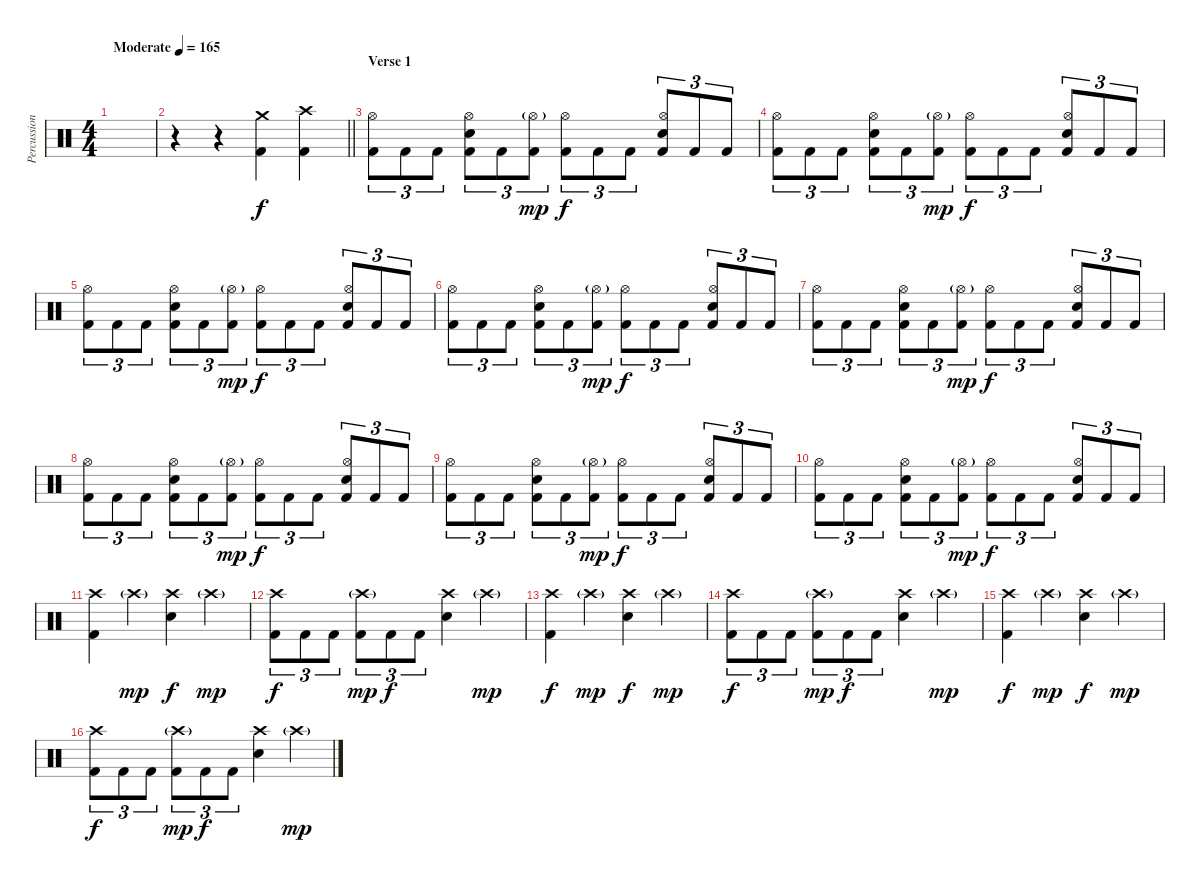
\track ("Percussion" "Percussion") {instrument percussion}
\staff {score}
\articulation defaults
\ts (4 4)
\tempo (165 "Moderate")
\clef neutral
\ks c
|
\barLineRight lightlight
r.4 r.4 ("Crash medium (hit)" "Kick (hit) 2").4 ("Crash high (hit)" "Kick (hit) 2").4 |
\section ("" "Verse 1")
("Hi-Hat (open)" "Kick (hit) 2").8{tu (3 2)} "Kick (hit) 2".8{tu (3 2)} "Kick (hit) 2".8{tu (3 2)} ("Hi-Hat (open)" "Snare (hit) 2" "Kick (hit) 2").8{tu (3 2)} "Kick (hit) 2".8{tu (3 2)} ("Hi-Hat (open)"{g} "Kick (hit) 2").8{tu (3 2) dy mp} ("Hi-Hat (open)" "Kick (hit) 2").8{tu (3 2) dy f} "Kick (hit) 2".8{tu (3 2)} "Kick (hit) 2".8{tu (3 2)} ("Hi-Hat (open)" "Snare (hit) 2" "Kick (hit) 2").8{tu (3 2)} "Kick (hit) 2".8{tu (3 2)} "Kick (hit) 2".8{tu (3 2)} |
("Hi-Hat (open)" "Kick (hit) 2").8{tu (3 2)} "Kick (hit) 2".8{tu (3 2)} "Kick (hit) 2".8{tu (3 2)} ("Hi-Hat (open)" "Snare (hit) 2" "Kick (hit) 2").8{tu (3 2)} "Kick (hit) 2".8{tu (3 2)} ("Hi-Hat (open)"{g} "Kick (hit) 2").8{tu (3 2) dy mp} ("Hi-Hat (open)" "Kick (hit) 2").8{tu (3 2) dy f} "Kick (hit) 2".8{tu (3 2)} "Kick (hit) 2".8{tu (3 2)} ("Hi-Hat (open)" "Snare (hit) 2" "Kick (hit) 2").8{tu (3 2)} "Kick (hit) 2".8{tu (3 2)} "Kick (hit) 2".8{tu (3 2)} |
("Hi-Hat (open)" "Kick (hit) 2").8{tu (3 2)} "Kick (hit) 2".8{tu (3 2)} "Kick (hit) 2".8{tu (3 2)} ("Hi-Hat (open)" "Snare (hit) 2" "Kick (hit) 2").8{tu (3 2)} "Kick (hit) 2".8{tu (3 2)} ("Hi-Hat (open)"{g} "Kick (hit) 2").8{tu (3 2) dy mp} ("Hi-Hat (open)" "Kick (hit) 2").8{tu (3 2) dy f} "Kick (hit) 2".8{tu (3 2)} "Kick (hit) 2".8{tu (3 2)} ("Hi-Hat (open)" "Snare (hit) 2" "Kick (hit) 2").8{tu (3 2)} "Kick (hit) 2".8{tu (3 2)} "Kick (hit) 2".8{tu (3 2)} |
("Hi-Hat (open)" "Kick (hit) 2").8{tu (3 2)} "Kick (hit) 2".8{tu (3 2)} "Kick (hit) 2".8{tu (3 2)} ("Hi-Hat (open)" "Snare (hit) 2" "Kick (hit) 2").8{tu (3 2)} "Kick (hit) 2".8{tu (3 2)} ("Hi-Hat (open)"{g} "Kick (hit) 2").8{tu (3 2) dy mp} ("Hi-Hat (open)" "Kick (hit) 2").8{tu (3 2) dy f} "Kick (hit) 2".8{tu (3 2)} "Kick (hit) 2".8{tu (3 2)} ("Hi-Hat (open)" "Snare (hit) 2" "Kick (hit) 2").8{tu (3 2)} "Kick (hit) 2".8{tu (3 2)} "Kick (hit) 2".8{tu (3 2)} |
("Hi-Hat (open)" "Kick (hit) 2").8{tu (3 2)} "Kick (hit) 2".8{tu (3 2)} "Kick (hit) 2".8{tu (3 2)} ("Hi-Hat (open)" "Snare (hit) 2" "Kick (hit) 2").8{tu (3 2)} "Kick (hit) 2".8{tu (3 2)} ("Hi-Hat (open)"{g} "Kick (hit) 2").8{tu (3 2) dy mp} ("Hi-Hat (open)" "Kick (hit) 2").8{tu (3 2) dy f} "Kick (hit) 2".8{tu (3 2)} "Kick (hit) 2".8{tu (3 2)} ("Hi-Hat (open)" "Snare (hit) 2" "Kick (hit) 2").8{tu (3 2)} "Kick (hit) 2".8{tu (3 2)} "Kick (hit) 2".8{tu (3 2)} |
("Hi-Hat (open)" "Kick (hit) 2").8{tu (3 2)} "Kick (hit) 2".8{tu (3 2)} "Kick (hit) 2".8{tu (3 2)} ("Hi-Hat (open)" "Snare (hit) 2" "Kick (hit) 2").8{tu (3 2)} "Kick (hit) 2".8{tu (3 2)} ("Hi-Hat (open)"{g} "Kick (hit) 2").8{tu (3 2) dy mp} ("Hi-Hat (open)" "Kick (hit) 2").8{tu (3 2) dy f} "Kick (hit) 2".8{tu (3 2)} "Kick (hit) 2".8{tu (3 2)} ("Hi-Hat (open)" "Snare (hit) 2" "Kick (hit) 2").8{tu (3 2)} "Kick (hit) 2".8{tu (3 2)} "Kick (hit) 2".8{tu (3 2)} |
("Hi-Hat (open)" "Kick (hit) 2").8{tu (3 2)} "Kick (hit) 2".8{tu (3 2)} "Kick (hit) 2".8{tu (3 2)} ("Hi-Hat (open)" "Snare (hit) 2" "Kick (hit) 2").8{tu (3 2)} "Kick (hit) 2".8{tu (3 2)} ("Hi-Hat (open)"{g} "Kick (hit) 2").8{tu (3 2) dy mp} ("Hi-Hat (open)" "Kick (hit) 2").8{tu (3 2) dy f} "Kick (hit) 2".8{tu (3 2)} "Kick (hit) 2".8{tu (3 2)} ("Hi-Hat (open)" "Snare (hit) 2" "Kick (hit) 2").8{tu (3 2)} "Kick (hit) 2".8{tu (3 2)} "Kick (hit) 2".8{tu (3 2)} |
("Hi-Hat (open)" "Kick (hit) 2").8{tu (3 2)} "Kick (hit) 2".8{tu (3 2)} "Kick (hit) 2".8{tu (3 2)} ("Hi-Hat (open)" "Snare (hit) 2" "Kick (hit) 2").8{tu (3 2)} "Kick (hit) 2".8{tu (3 2)} ("Hi-Hat (open)"{g} "Kick (hit) 2").8{tu (3 2) dy mp} ("Hi-Hat (open)" "Kick (hit) 2").8{tu (3 2) dy f} "Kick (hit) 2".8{tu (3 2)} "Kick (hit) 2".8{tu (3 2)} ("Hi-Hat (open)" "Snare (hit) 2" "Kick (hit) 2").8{tu (3 2)} "Kick (hit) 2".8{tu (3 2)} "Kick (hit) 2".8{tu (3 2)} |
("Crash high (hit)" "Kick (hit) 2").4 "Crash high (hit)"{g}.4{dy mp} ("Crash high (hit)" "Snare (hit) 2").4{dy f} "Crash high (hit)"{g}.4{dy mp} |
("Crash high (hit)" "Kick (hit) 2").8{tu (3 2) dy f} "Kick (hit) 2".8{tu (3 2)} "Kick (hit) 2".8{tu (3 2)} ("Crash high (hit)"{g} "Kick (hit) 2").8{tu (3 2) dy mp} "Kick (hit) 2".8{tu (3 2) dy f} "Kick (hit) 2".8{tu (3 2)} ("Crash high (hit)" "Snare (hit) 2").4 "Crash high (hit)"{g}.4{dy mp} |
("Crash high (hit)" "Kick (hit) 2").4{dy f} "Crash high (hit)"{g}.4{dy mp} ("Crash high (hit)" "Snare (hit) 2").4{dy f} "Crash high (hit)"{g}.4{dy mp} |
("Crash high (hit)" "Kick (hit) 2").8{tu (3 2) dy f} "Kick (hit) 2".8{tu (3 2)} "Kick (hit) 2".8{tu (3 2)} ("Crash high (hit)"{g} "Kick (hit) 2").8{tu (3 2) dy mp} "Kick (hit) 2".8{tu (3 2) dy f} "Kick (hit) 2".8{tu (3 2)} ("Crash high (hit)" "Snare (hit) 2").4 "Crash high (hit)"{g}.4{dy mp} |
("Crash high (hit)" "Kick (hit) 2").4{dy f} "Crash high (hit)"{g}.4{dy mp} ("Crash high (hit)" "Snare (hit) 2").4{dy f} "Crash high (hit)"{g}.4{dy mp} |
("Crash high (hit)" "Kick (hit) 2").8{tu (3 2) dy f} "Kick (hit) 2".8{tu (3 2)} "Kick (hit) 2".8{tu (3 2)} ("Crash high (hit)"{g} "Kick (hit) 2").8{tu (3 2) dy mp} "Kick (hit) 2".8{tu (3 2) dy f} "Kick (hit) 2".8{tu (3 2)} ("Crash high (hit)" "Snare (hit) 2").4 "Crash high (hit)"{g}.4{dy mp}
